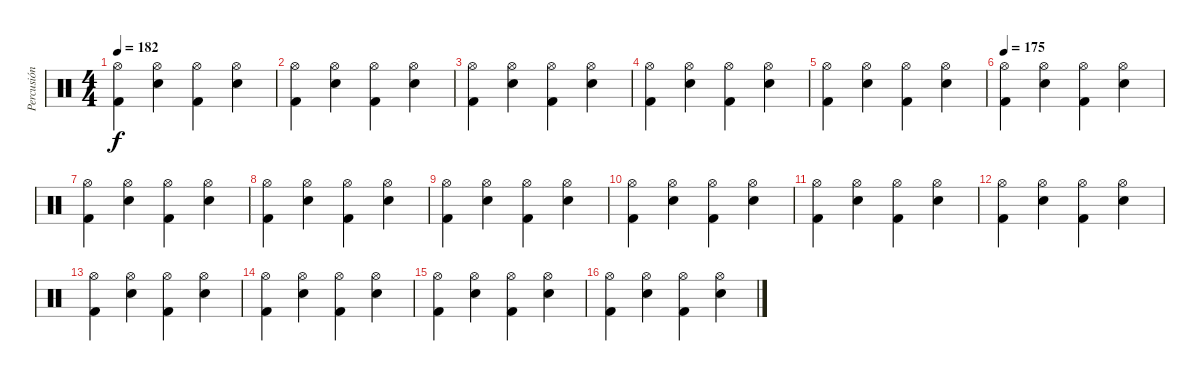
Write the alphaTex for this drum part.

\track ("Percusión" "Percusión") {instrument percussion}
\staff {score}
\articulation defaults
\ts (4 4)
\tempo 182
\clef neutral
\ks c
("Kick (hit) 2" "Hi-Hat (open)").4{dy f} ("Electric Snare (hit)" "Hi-Hat (open)").4 ("Kick (hit) 2" "Hi-Hat (open)").4 ("Electric Snare (hit)" "Hi-Hat (open)").4 |
("Kick (hit) 2" "Hi-Hat (open)").4 ("Electric Snare (hit)" "Hi-Hat (open)").4 ("Kick (hit) 2" "Hi-Hat (open)").4 ("Electric Snare (hit)" "Hi-Hat (open)").4 |
("Kick (hit) 2" "Hi-Hat (open)").4 ("Electric Snare (hit)" "Hi-Hat (open)").4 ("Kick (hit) 2" "Hi-Hat (open)").4 ("Electric Snare (hit)" "Hi-Hat (open)").4 |
("Kick (hit) 2" "Hi-Hat (open)").4 ("Electric Snare (hit)" "Hi-Hat (open)").4 ("Kick (hit) 2" "Hi-Hat (open)").4 ("Electric Snare (hit)" "Hi-Hat (open)").4 |
("Kick (hit) 2" "Hi-Hat (open)").4 ("Electric Snare (hit)" "Hi-Hat (open)").4 ("Kick (hit) 2" "Hi-Hat (open)").4 ("Electric Snare (hit)" "Hi-Hat (open)").4 |
\tempo 175
("Kick (hit) 2" "Hi-Hat (open)").4 ("Electric Snare (hit)" "Hi-Hat (open)").4 ("Kick (hit) 2" "Hi-Hat (open)").4 ("Electric Snare (hit)" "Hi-Hat (open)").4 |
("Kick (hit) 2" "Hi-Hat (open)").4 ("Electric Snare (hit)" "Hi-Hat (open)").4 ("Kick (hit) 2" "Hi-Hat (open)").4 ("Electric Snare (hit)" "Hi-Hat (open)").4 |
("Kick (hit) 2" "Hi-Hat (open)").4 ("Electric Snare (hit)" "Hi-Hat (open)").4 ("Kick (hit) 2" "Hi-Hat (open)").4 ("Electric Snare (hit)" "Hi-Hat (open)").4 |
("Kick (hit) 2" "Hi-Hat (open)").4 ("Electric Snare (hit)" "Hi-Hat (open)").4 ("Kick (hit) 2" "Hi-Hat (open)").4 ("Electric Snare (hit)" "Hi-Hat (open)").4 |
("Kick (hit) 2" "Hi-Hat (open)").4 ("Electric Snare (hit)" "Hi-Hat (open)").4 ("Kick (hit) 2" "Hi-Hat (open)").4 ("Electric Snare (hit)" "Hi-Hat (open)").4 |
("Kick (hit) 2" "Hi-Hat (open)").4 ("Electric Snare (hit)" "Hi-Hat (open)").4 ("Kick (hit) 2" "Hi-Hat (open)").4 ("Electric Snare (hit)" "Hi-Hat (open)").4 |
("Kick (hit) 2" "Hi-Hat (open)").4 ("Electric Snare (hit)" "Hi-Hat (open)").4 ("Kick (hit) 2" "Hi-Hat (open)").4 ("Electric Snare (hit)" "Hi-Hat (open)").4 |
("Kick (hit) 2" "Hi-Hat (open)").4 ("Electric Snare (hit)" "Hi-Hat (open)").4 ("Kick (hit) 2" "Hi-Hat (open)").4 ("Electric Snare (hit)" "Hi-Hat (open)").4 |
("Kick (hit) 2" "Hi-Hat (open)").4 ("Electric Snare (hit)" "Hi-Hat (open)").4 ("Kick (hit) 2" "Hi-Hat (open)").4 ("Electric Snare (hit)" "Hi-Hat (open)").4 |
("Kick (hit) 2" "Hi-Hat (open)").4 ("Electric Snare (hit)" "Hi-Hat (open)").4 ("Kick (hit) 2" "Hi-Hat (open)").4 ("Electric Snare (hit)" "Hi-Hat (open)").4 |
("Kick (hit) 2" "Hi-Hat (open)").4 ("Electric Snare (hit)" "Hi-Hat (open)").4 ("Kick (hit) 2" "Hi-Hat (open)").4 ("Electric Snare (hit)" "Hi-Hat (open)").4
